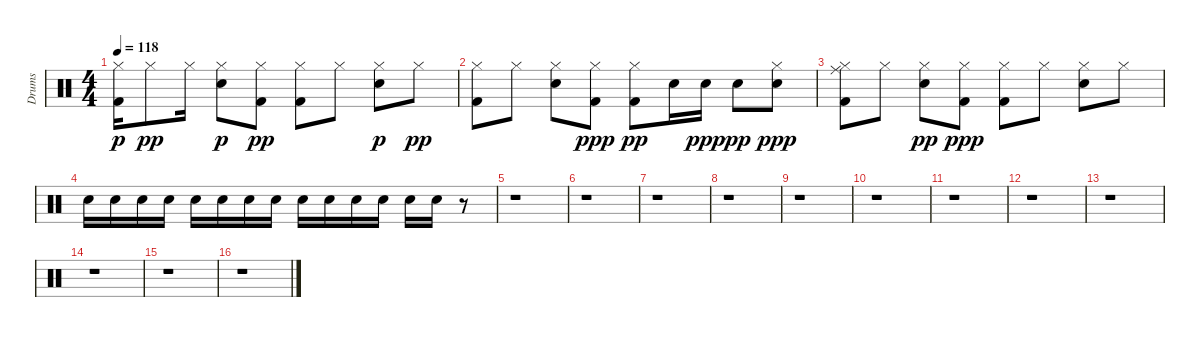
\track ("Drums" "Drums") {instrument percussion}
\staff {score}
\articulation defaults
\ts (4 4)
\tempo 118
\clef neutral
\ks c
("Kick (hit) 2" "Hi-Hat (closed)").16{dy p} "Hi-Hat (closed)".8{dy pp} "Hi-Hat (closed)".16 ("Snare (hit) 2" "Hi-Hat (closed)").8{dy p} ("Kick (hit) 2" "Hi-Hat (closed)").8{dy pp} ("Kick (hit) 2" "Hi-Hat (closed)").8 "Hi-Hat (closed)".8 ("Snare (hit) 2" "Hi-Hat (closed)").8{dy p} "Hi-Hat (closed)".8{dy pp} |
("Kick (hit) 2" "Hi-Hat (closed)").8 "Hi-Hat (closed)".8 ("Snare (hit) 2" "Hi-Hat (closed)").8 ("Kick (hit) 2" "Hi-Hat (closed)").8{dy ppp} ("Kick (hit) 2" "Hi-Hat (closed)").8{dy pp} "Snare (hit) 2".16 "Snare (hit) 2".16{dy ppp} "Snare (hit) 2".8{dy pp} ("Snare (hit) 2" "Hi-Hat (closed)").8{dy ppp} |
("Kick (hit) 2" "Hi-Hat (closed)" "Ride (middle)").8 "Hi-Hat (closed)".8 ("Snare (hit) 2" "Hi-Hat (closed)").8{dy pp} ("Kick (hit) 2" "Hi-Hat (closed)").8{dy ppp} ("Kick (hit) 2" "Hi-Hat (closed)").8 "Hi-Hat (closed)".8 ("Snare (hit) 2" "Hi-Hat (closed)").8 "Hi-Hat (closed)".8 |
"Snare (hit) 2".16 "Snare (hit) 2".16 "Snare (hit) 2".16 "Snare (hit) 2".16 "Snare (hit) 2".16 "Snare (hit) 2".16 "Snare (hit) 2".16 "Snare (hit) 2".16 "Snare (hit) 2".16 "Snare (hit) 2".16 "Snare (hit) 2".16 "Snare (hit) 2".16 "Snare (hit) 2".16 "Snare (hit) 2".16 r.8 |
r.1 |
r.1 |
r.1 |
r.1 |
r.1 |
r.1 |
r.1 |
r.1 |
r.1 |
r.1 |
r.1 |
r.1
